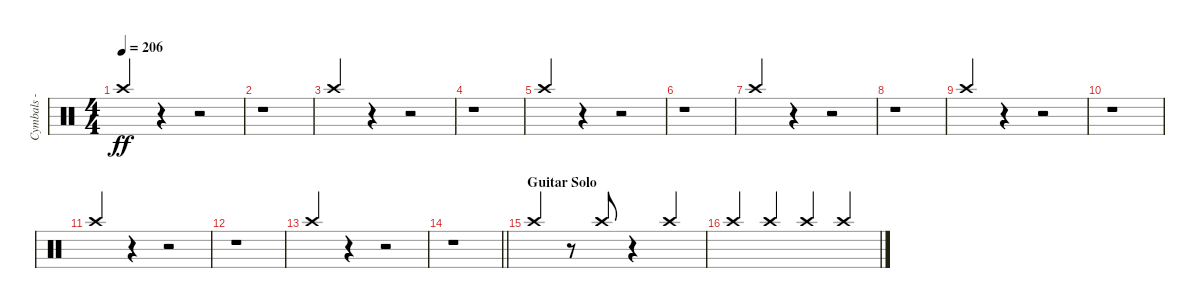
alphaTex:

\track ("Cymbals - crash" "Cymbals - ") {instrument percussion}
\staff {score}
\articulation defaults
\ts (4 4)
\tempo 206
\clef neutral
\ks c "Crash high (hit)".4{dy ff beam Up}
r.4 r.2 |
r.1 |
"Crash high (hit)".4{beam Up} r.4 r.2 |
r.1 |
"Crash high (hit)".4{beam Up} r.4 r.2 |
r.1 |
"Crash high (hit)".4{beam Up} r.4 r.2 |
r.1 |
"Crash high (hit)".4{beam Up} r.4 r.2 |
r.1 |
"Crash high (hit)".4{beam Up} r.4 r.2 |
r.1 |
"Crash high (hit)".4{beam Up} r.4 r.2 |
\barLineRight lightlight
r.1 |
\section ("" "Guitar Solo")
"Crash high (hit)".4{beam Up} r.8 "Crash high (hit)".8{beam Up} r.4 "Crash high (hit)".4{beam Up} |
"Crash high (hit)".4{beam Up} "Crash high (hit)".4{beam Up} "Crash high (hit)".4{beam Up} "Crash high (hit)".4{beam Up}
